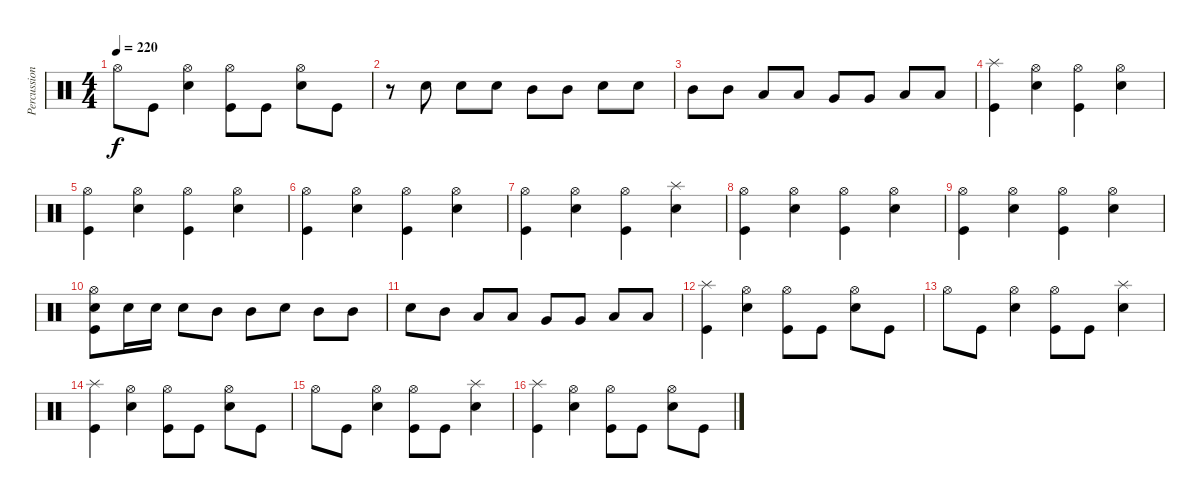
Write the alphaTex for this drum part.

\track ("Percussions" "Percussion") {instrument percussion}
\staff {score}
\articulation defaults
\ts (4 4)
\tempo 220
\clef neutral
\ks c "Hi-Hat (open)".8{dy f} "Kick (hit)".8
("Electric Snare (hit)" "Hi-Hat (open)").4 ("Kick (hit)" "Hi-Hat (open)").8 "Kick (hit)".8 ("Electric Snare (hit)" "Hi-Hat (open)").8 "Kick (hit)".8 |
r.8 "Electric Snare (hit)".8 "Electric Snare (hit)".8 "Electric Snare (hit)".8 "Mid Tom (hit)".8 "Mid Tom (hit)".8 "Electric Snare (hit)".8 "Electric Snare (hit)".8 |
"Mid Tom (hit)".8 "Mid Tom (hit)".8 "Low Tom (hit)".8 "Low Tom (hit)".8 "Very Low Tom (hit)".8 "Very Low Tom (hit)".8 "Low Floor Tom (hit)".8 "Low Floor Tom (hit)".8 |
("Kick (hit)" "Splash (hit)").4 ("Electric Snare (hit)" "Hi-Hat (open)").4 ("Kick (hit)" "Hi-Hat (open)").4 ("Electric Snare (hit)" "Hi-Hat (open)").4 |
("Kick (hit)" "Hi-Hat (open)").4 ("Electric Snare (hit)" "Hi-Hat (open)").4 ("Kick (hit)" "Hi-Hat (open)").4 ("Electric Snare (hit)" "Hi-Hat (open)").4 |
("Kick (hit)" "Hi-Hat (open)").4 ("Electric Snare (hit)" "Hi-Hat (open)").4 ("Kick (hit)" "Hi-Hat (open)").4 ("Electric Snare (hit)" "Hi-Hat (open)").4 |
("Kick (hit)" "Hi-Hat (open)").4 ("Electric Snare (hit)" "Hi-Hat (open)").4 ("Kick (hit)" "Hi-Hat (open)").4 ("Electric Snare (hit)" "Splash (hit)").4 |
("Kick (hit)" "Hi-Hat (open)").4 ("Electric Snare (hit)" "Hi-Hat (open)").4 ("Kick (hit)" "Hi-Hat (open)").4 ("Electric Snare (hit)" "Hi-Hat (open)").4 |
("Kick (hit)" "Hi-Hat (open)").4 ("Electric Snare (hit)" "Hi-Hat (open)").4 ("Kick (hit)" "Hi-Hat (open)").4 ("Electric Snare (hit)" "Hi-Hat (open)").4 |
("Kick (hit)" "Electric Snare (hit)" "Hi-Hat (open)").8 "Electric Snare (hit)".16 "Electric Snare (hit)".16 "Electric Snare (hit)".8 "Mid Tom (hit)".8 "Mid Tom (hit)".8 "Electric Snare (hit)".8 "Mid Tom (hit)".8 "Mid Tom (hit)".8 |
"Electric Snare (hit)".8 "Mid Tom (hit)".8 "Low Tom (hit)".8 "Low Tom (hit)".8 "Very Low Tom (hit)".8 "Very Low Tom (hit)".8 "Low Floor Tom (hit)".8 "Low Floor Tom (hit)".8 |
("Kick (hit)" "Splash (hit)").4 ("Electric Snare (hit)" "Hi-Hat (open)").4 ("Kick (hit)" "Hi-Hat (open)").8 "Kick (hit)".8 ("Electric Snare (hit)" "Hi-Hat (open)").8 "Kick (hit)".8 |
"Hi-Hat (open)".8 "Kick (hit)".8 ("Electric Snare (hit)" "Hi-Hat (open)").4 ("Kick (hit)" "Hi-Hat (open)").8 "Kick (hit)".8 ("Electric Snare (hit)" "Splash (hit)").4 |
("Kick (hit)" "Splash (hit)").4 ("Electric Snare (hit)" "Hi-Hat (open)").4 ("Kick (hit)" "Hi-Hat (open)").8 "Kick (hit)".8 ("Electric Snare (hit)" "Hi-Hat (open)").8 "Kick (hit)".8 |
"Hi-Hat (open)".8 "Kick (hit)".8 ("Electric Snare (hit)" "Hi-Hat (open)").4 ("Kick (hit)" "Hi-Hat (open)").8 "Kick (hit)".8 ("Electric Snare (hit)" "Splash (hit)").4 |
("Kick (hit)" "Splash (hit)").4 ("Electric Snare (hit)" "Hi-Hat (open)").4 ("Kick (hit)" "Hi-Hat (open)").8 "Kick (hit)".8 ("Electric Snare (hit)" "Hi-Hat (open)").8 "Kick (hit)".8
